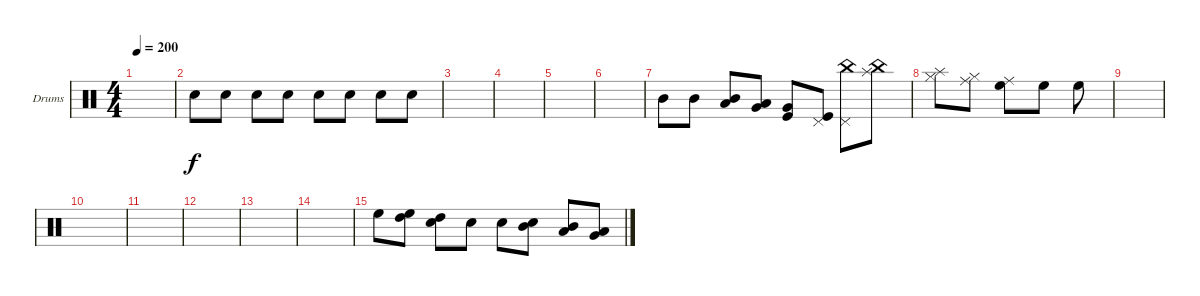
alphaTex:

\defaultSystemsLayout 4
\bracketExtendMode groupsimilarinstruments
\firstSystemTrackNameOrientation horizontal
\otherSystemsTrackNameOrientation horizontal
\track ("Drumkit" "Drums") {instrument percussion}
\staff {score}
\articulation defaults
\ts (4 4)
\tempo 200
\clef neutral
\scale
0.333333
\ks c
|
\scale
0.333333 "Snare (hit) 2".8 "Snare (hit) 2".8 "Snare (hit) 2".8 "Snare (hit) 2".8 "Snare (hit) 2".8 "Snare (hit) 2".8 "Snare (hit) 2".8 "Snare (hit) 2".8 |
\scale
0.333333 |
\scale
0.333333 |
\scale
0.333333 |
\scale
0.333333 |
\scale
0.333333 "Mid Tom (hit)".8 "Mid Tom (hit)".8 ("Mid Tom (hit)" "Low Tom (hit)").8 ("Low Tom (hit)" "Very Low Tom (hit)").8 ("Very Low Tom (hit)" "Kick (hit)").8 ("Kick (hit)" "Pedal Hi-Hat (hit)").8 ("Pedal Hi-Hat (hit)" "China (hit)").8 ("China (hit)" "Splash (hit)").8 |
\scale
0.333333 ("Splash (hit)" "Hi-Hat (closed)").8 ("Hi-Hat (closed)" "Ride (middle)").8 ("Ride (middle)" "High Floor Tom (hit)").8 "High Floor Tom (hit)".8 "High Floor Tom (hit)".8 |
\scale
0.333333 |
\scale
0.333333 |
\scale
0.333333 |
\scale
0.333333 |
\scale
0.333333 |
\scale
0.333333 |
\scale
0.333333 "High Floor Tom (hit)".8 ("High Floor Tom (hit)" "High Tom (hit)").8 ("High Tom (hit)" "Snare (hit) 2").8 "Snare (hit) 2".8 "Snare (hit) 2".8 ("Snare (hit) 2" "Mid Tom (hit)").8 ("Mid Tom (hit)" "Low Tom (hit)").8 ("Low Tom (hit)" "Very Low Tom (hit)").8 |
\scale
0.333333
